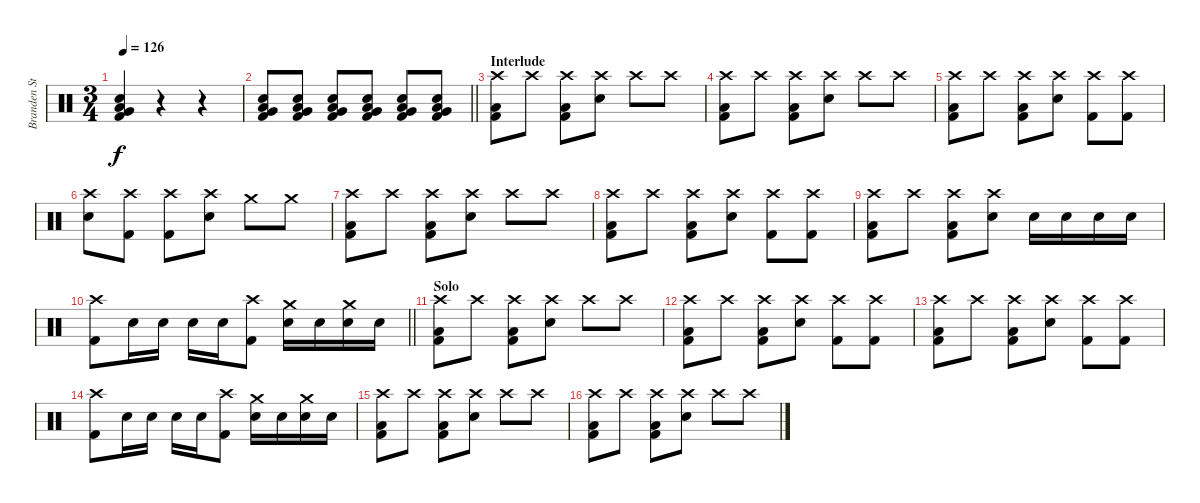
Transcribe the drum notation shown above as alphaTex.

\track ("Branden Steineckert [Drums]" "Branden St") {instrument percussion}
\staff {score}
\articulation defaults
\ts (3 4)
\tempo 126
\clef neutral
\ks c
("Electric Snare (hit)" "Very Low Tom (hit)" "Low Floor Tom (hit)" "Kick (hit) 2").4{dy f} r.4 r.4 |
\barLineRight lightlight
("Electric Snare (hit)" "Very Low Tom (hit)" "Low Floor Tom (hit)" "Kick (hit) 2").8 ("Electric Snare (hit)" "Very Low Tom (hit)" "Low Floor Tom (hit)" "Kick (hit) 2").8 ("Electric Snare (hit)" "Very Low Tom (hit)" "Low Floor Tom (hit)" "Kick (hit) 2").8 ("Electric Snare (hit)" "Very Low Tom (hit)" "Low Floor Tom (hit)" "Kick (hit) 2").8 ("Electric Snare (hit)" "Very Low Tom (hit)" "Low Floor Tom (hit)" "Kick (hit) 2").8 ("Electric Snare (hit)" "Very Low Tom (hit)" "Low Floor Tom (hit)" "Kick (hit) 2").8 |
\section ("" "Interlude")
("Crash high (hit)" "Low Floor Tom (hit)" "Kick (hit) 2").8 "Crash high (hit)".8 ("Crash high (hit)" "Low Floor Tom (hit)" "Kick (hit) 2").8 ("Crash high (hit)" "Electric Snare (hit)").8 "Crash high (hit)".8 "Crash high (hit)".8 |
("Crash high (hit)" "Low Floor Tom (hit)" "Kick (hit) 2").8 "Crash high (hit)".8 ("Crash high (hit)" "Low Floor Tom (hit)" "Kick (hit) 2").8 ("Crash high (hit)" "Electric Snare (hit)").8 "Crash high (hit)".8 "Crash high (hit)".8 |
("Crash high (hit)" "Low Floor Tom (hit)" "Kick (hit) 2").8 "Crash high (hit)".8 ("Crash high (hit)" "Low Floor Tom (hit)" "Kick (hit) 2").8 ("Crash high (hit)" "Electric Snare (hit)").8 ("Crash high (hit)" "Kick (hit) 2").8 ("Crash high (hit)" "Kick (hit) 2").8 |
("Crash high (hit)" "Electric Snare (hit)").8 ("Crash high (hit)" "Kick (hit) 2").8 ("Crash high (hit)" "Kick (hit) 2").8 ("Crash high (hit)" "Electric Snare (hit)").8 "Crash medium (hit)".8 "Crash medium (hit)".8 |
("Crash high (hit)" "Low Floor Tom (hit)" "Kick (hit) 2").8 "Crash high (hit)".8 ("Crash high (hit)" "Low Floor Tom (hit)" "Kick (hit) 2").8 ("Crash high (hit)" "Electric Snare (hit)").8 "Crash high (hit)".8 "Crash high (hit)".8 |
("Crash high (hit)" "Low Floor Tom (hit)" "Kick (hit) 2").8 "Crash high (hit)".8 ("Crash high (hit)" "Low Floor Tom (hit)" "Kick (hit) 2").8 ("Crash high (hit)" "Electric Snare (hit)").8 ("Crash high (hit)" "Kick (hit) 2").8 ("Crash high (hit)" "Kick (hit) 2").8 |
("Crash high (hit)" "Low Floor Tom (hit)" "Kick (hit) 2").8 "Crash high (hit)".8 ("Crash high (hit)" "Low Floor Tom (hit)" "Kick (hit) 2").8 ("Crash high (hit)" "Electric Snare (hit)").8 "Electric Snare (hit)".16 "Electric Snare (hit)".16 "Electric Snare (hit)".16 "Electric Snare (hit)".16 |
\barLineRight lightlight
("Crash high (hit)" "Kick (hit) 2").8 "Electric Snare (hit)".16 "Electric Snare (hit)".16 "Electric Snare (hit)".16 "Electric Snare (hit)".16 ("Crash high (hit)" "Kick (hit) 2").8 ("Crash medium (hit)" "Electric Snare (hit)").16 "Electric Snare (hit)".16 ("Crash medium (hit)" "Electric Snare (hit)").16 "Electric Snare (hit)".16 |
\section ("" "Solo")
("Crash high (hit)" "Low Floor Tom (hit)" "Kick (hit) 2").8 "Crash high (hit)".8 ("Crash high (hit)" "Low Floor Tom (hit)" "Kick (hit) 2").8 ("Crash high (hit)" "Electric Snare (hit)").8 "Crash high (hit)".8 "Crash high (hit)".8 |
("Crash high (hit)" "Low Floor Tom (hit)" "Kick (hit) 2").8 "Crash high (hit)".8 ("Crash high (hit)" "Low Floor Tom (hit)" "Kick (hit) 2").8 ("Crash high (hit)" "Electric Snare (hit)").8 ("Crash high (hit)" "Kick (hit) 2").8 ("Crash high (hit)" "Kick (hit) 2").8 |
("Crash high (hit)" "Low Floor Tom (hit)" "Kick (hit) 2").8 "Crash high (hit)".8 ("Crash high (hit)" "Low Floor Tom (hit)" "Kick (hit) 2").8 ("Crash high (hit)" "Electric Snare (hit)").8 ("Crash high (hit)" "Kick (hit) 2").8 ("Crash high (hit)" "Kick (hit) 2").8 |
("Crash high (hit)" "Kick (hit) 2").8 "Electric Snare (hit)".16 "Electric Snare (hit)".16 "Electric Snare (hit)".16 "Electric Snare (hit)".16 ("Crash high (hit)" "Kick (hit) 2").8 ("Crash medium (hit)" "Electric Snare (hit)").16 "Electric Snare (hit)".16 ("Crash medium (hit)" "Electric Snare (hit)").16 "Electric Snare (hit)".16 |
("Crash high (hit)" "Low Floor Tom (hit)" "Kick (hit) 2").8 "Crash high (hit)".8 ("Crash high (hit)" "Low Floor Tom (hit)" "Kick (hit) 2").8 ("Crash high (hit)" "Electric Snare (hit)").8 "Crash high (hit)".8 "Crash high (hit)".8 |
("Crash high (hit)" "Low Floor Tom (hit)" "Kick (hit) 2").8 "Crash high (hit)".8 ("Crash high (hit)" "Low Floor Tom (hit)" "Kick (hit) 2").8 ("Crash high (hit)" "Electric Snare (hit)").8 "Crash high (hit)".8 "Crash high (hit)".8
